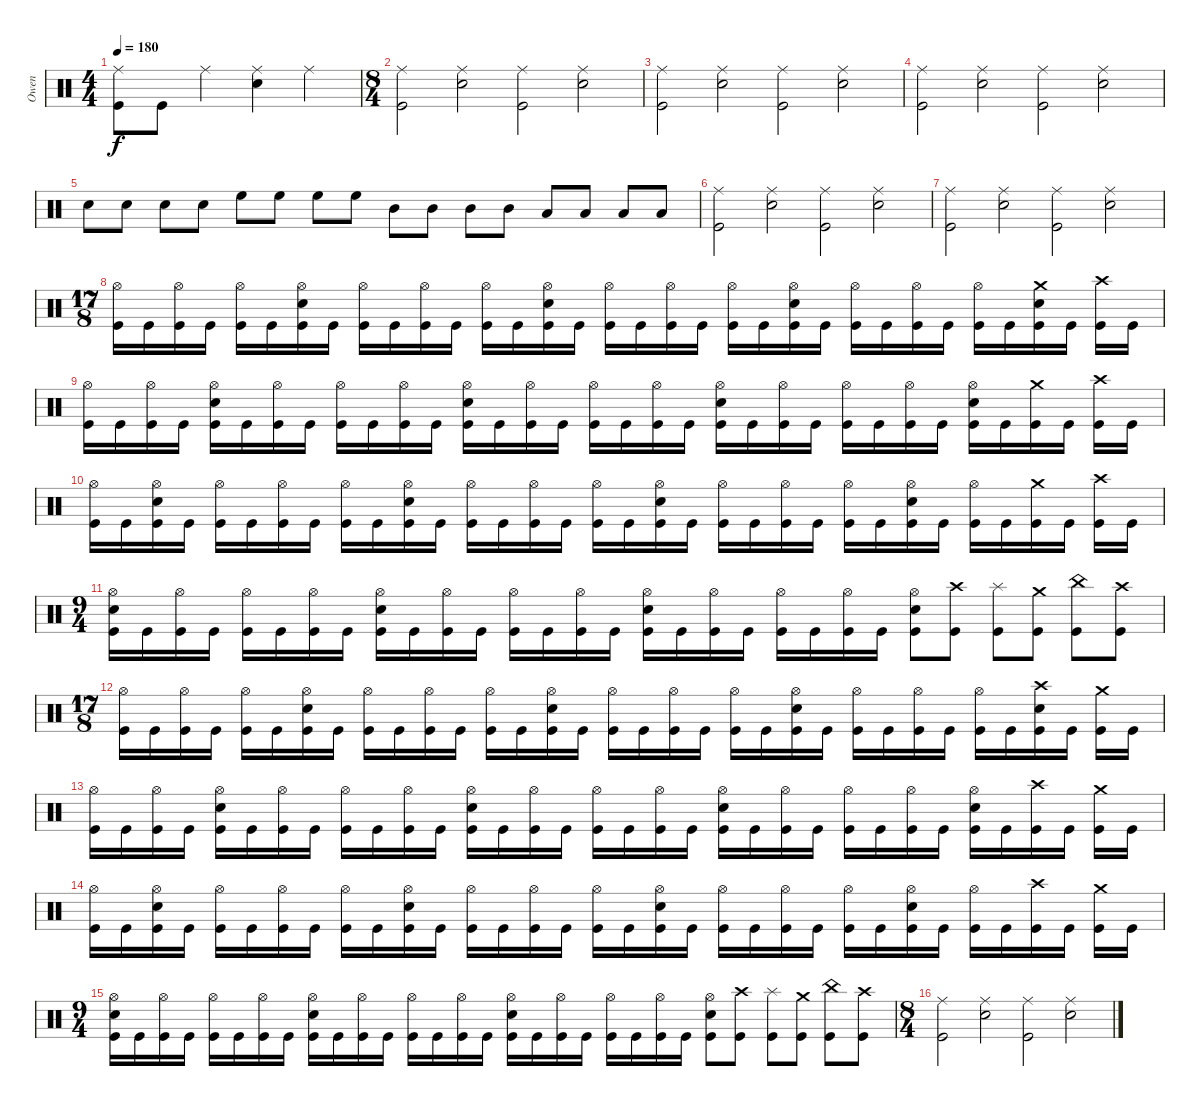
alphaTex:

\track ("Owen" "Owen") {instrument percussion}
\staff {score}
\articulation defaults
\ts (4 4)
\tempo 180
\clef neutral
\ks c
("Ride (middle)" "Kick (hit)").8{dy f} "Kick (hit)".8 "Ride (middle)".4 ("Ride (middle)" "Snare (hit) 2").4 "Ride (middle)".4 |
\ts (8 4)
("Ride (middle)" "Kick (hit)").2 ("Ride (middle)" "Snare (hit) 2").2 ("Ride (middle)" "Kick (hit)").2 ("Ride (middle)" "Snare (hit) 2").2 |
("Ride (middle)" "Kick (hit)").2 ("Ride (middle)" "Snare (hit) 2").2 ("Ride (middle)" "Kick (hit)").2 ("Ride (middle)" "Snare (hit) 2").2 |
("Ride (middle)" "Kick (hit)").2 ("Ride (middle)" "Snare (hit) 2").2 ("Ride (middle)" "Kick (hit)").2 ("Ride (middle)" "Snare (hit) 2").2 |
"Snare (hit) 2".8 "Snare (hit) 2".8 "Snare (hit) 2".8 "Snare (hit) 2".8 "High Floor Tom (hit)".8 "High Floor Tom (hit)".8 "High Floor Tom (hit)".8 "High Floor Tom (hit)".8 "Mid Tom (hit)".8 "Mid Tom (hit)".8 "Mid Tom (hit)".8 "Mid Tom (hit)".8 "Low Tom (hit)".8 "Low Tom (hit)".8 "Low Floor Tom (hit)".8 "Low Floor Tom (hit)".8 |
("Ride (middle)" "Kick (hit)").2 ("Ride (middle)" "Snare (hit) 2").2 ("Ride (middle)" "Kick (hit)").2 ("Ride (middle)" "Snare (hit) 2").2 |
("Ride (middle)" "Kick (hit)").2 ("Ride (middle)" "Snare (hit) 2").2 ("Ride (middle)" "Kick (hit)").2 ("Ride (middle)" "Snare (hit) 2").2 |
\ts (17 8)
("Hi-Hat (open)" "Kick (hit)").16 "Kick (hit)".16 ("Hi-Hat (open)" "Kick (hit)").16 "Kick (hit)".16 ("Hi-Hat (open)" "Kick (hit)").16 "Kick (hit)".16 ("Hi-Hat (open)" "Snare (hit) 2" "Kick (hit)").16 "Kick (hit)".16 ("Hi-Hat (open)" "Kick (hit)").16 "Kick (hit)".16 ("Hi-Hat (open)" "Kick (hit)").16 "Kick (hit)".16 ("Hi-Hat (open)" "Kick (hit)").16 "Kick (hit)".16 ("Hi-Hat (open)" "Snare (hit) 2" "Kick (hit)").16 "Kick (hit)".16 ("Hi-Hat (open)" "Kick (hit)").16 "Kick (hit)".16 ("Hi-Hat (open)" "Kick (hit)").16 "Kick (hit)".16 ("Hi-Hat (open)" "Kick (hit)").16 "Kick (hit)".16 ("Hi-Hat (open)" "Snare (hit) 2" "Kick (hit)").16 "Kick (hit)".16 ("Hi-Hat (open)" "Kick (hit)").16 "Kick (hit)".16 ("Hi-Hat (open)" "Kick (hit)").16 "Kick (hit)".16 ("Hi-Hat (open)" "Kick (hit)").16 "Kick (hit)".16 ("Crash medium (hit)" "Snare (hit) 2" "Kick (hit)").16 "Kick (hit)".16 ("Crash high (hit)" "Kick (hit)").16 "Kick (hit)".16 |
("Hi-Hat (open)" "Kick (hit)").16 "Kick (hit)".16 ("Hi-Hat (open)" "Kick (hit)").16 "Kick (hit)".16 ("Hi-Hat (open)" "Snare (hit) 2" "Kick (hit)").16 "Kick (hit)".16 ("Hi-Hat (open)" "Kick (hit)").16 "Kick (hit)".16 ("Hi-Hat (open)" "Kick (hit)").16 "Kick (hit)".16 ("Hi-Hat (open)" "Kick (hit)").16 "Kick (hit)".16 ("Hi-Hat (open)" "Snare (hit) 2" "Kick (hit)").16 "Kick (hit)".16 ("Hi-Hat (open)" "Kick (hit)").16 "Kick (hit)".16 ("Hi-Hat (open)" "Kick (hit)").16 "Kick (hit)".16 ("Hi-Hat (open)" "Kick (hit)").16 "Kick (hit)".16 ("Hi-Hat (open)" "Snare (hit) 2" "Kick (hit)").16 "Kick (hit)".16 ("Hi-Hat (open)" "Kick (hit)").16 "Kick (hit)".16 ("Hi-Hat (open)" "Kick (hit)").16 "Kick (hit)".16 ("Hi-Hat (open)" "Kick (hit)").16 "Kick (hit)".16 ("Hi-Hat (open)" "Snare (hit) 2" "Kick (hit)").16 "Kick (hit)".16 ("Crash medium (hit)" "Kick (hit)").16 "Kick (hit)".16 ("Crash high (hit)" "Kick (hit)").16 "Kick (hit)".16 |
("Hi-Hat (open)" "Kick (hit)").16 "Kick (hit)".16 ("Hi-Hat (open)" "Snare (hit) 2" "Kick (hit)").16 "Kick (hit)".16 ("Hi-Hat (open)" "Kick (hit)").16 "Kick (hit)".16 ("Hi-Hat (open)" "Kick (hit)").16 "Kick (hit)".16 ("Hi-Hat (open)" "Kick (hit)").16 "Kick (hit)".16 ("Hi-Hat (open)" "Snare (hit) 2" "Kick (hit)").16 "Kick (hit)".16 ("Hi-Hat (open)" "Kick (hit)").16 "Kick (hit)".16 ("Hi-Hat (open)" "Kick (hit)").16 "Kick (hit)".16 ("Hi-Hat (open)" "Kick (hit)").16 "Kick (hit)".16 ("Hi-Hat (open)" "Snare (hit) 2" "Kick (hit)").16 "Kick (hit)".16 ("Hi-Hat (open)" "Kick (hit)").16 "Kick (hit)".16 ("Hi-Hat (open)" "Kick (hit)").16 "Kick (hit)".16 ("Hi-Hat (open)" "Kick (hit)").16 "Kick (hit)".16 ("Hi-Hat (open)" "Snare (hit) 2" "Kick (hit)").16 "Kick (hit)".16 ("Hi-Hat (open)" "Kick (hit)").16 "Kick (hit)".16 ("Crash medium (hit)" "Kick (hit)").16 "Kick (hit)".16 ("Crash high (hit)" "Kick (hit)").16 "Kick (hit)".16 |
\ts (9 4)
("Hi-Hat (open)" "Snare (hit) 2" "Kick (hit)").16 "Kick (hit)".16 ("Hi-Hat (open)" "Kick (hit)").16 "Kick (hit)".16 ("Hi-Hat (open)" "Kick (hit)").16 "Kick (hit)".16 ("Hi-Hat (open)" "Kick (hit)").16 "Kick (hit)".16 ("Hi-Hat (open)" "Snare (hit) 2" "Kick (hit)").16 "Kick (hit)".16 ("Hi-Hat (open)" "Kick (hit)").16 "Kick (hit)".16 ("Hi-Hat (open)" "Kick (hit)").16 "Kick (hit)".16 ("Hi-Hat (open)" "Kick (hit)").16 "Kick (hit)".16 ("Hi-Hat (open)" "Snare (hit) 2" "Kick (hit)").16 "Kick (hit)".16 ("Hi-Hat (open)" "Kick (hit)").16 "Kick (hit)".16 ("Hi-Hat (open)" "Kick (hit)").16 "Kick (hit)".16 ("Hi-Hat (open)" "Kick (hit)").16 "Kick (hit)".16 ("Hi-Hat (open)" "Snare (hit) 2" "Kick (hit)").8 ("Crash high (hit)" "Kick (hit)").8 ("Splash (hit)" "Kick (hit)").8 ("Crash medium (hit)" "Kick (hit)").8 ("China (hit)" "Kick (hit)").8 ("Crash high (hit)" "Kick (hit)").8 |
\ts (17 8)
("Hi-Hat (open)" "Kick (hit)").16 "Kick (hit)".16 ("Hi-Hat (open)" "Kick (hit)").16 "Kick (hit)".16 ("Hi-Hat (open)" "Kick (hit)").16 "Kick (hit)".16 ("Hi-Hat (open)" "Snare (hit) 2" "Kick (hit)").16 "Kick (hit)".16 ("Hi-Hat (open)" "Kick (hit)").16 "Kick (hit)".16 ("Hi-Hat (open)" "Kick (hit)").16 "Kick (hit)".16 ("Hi-Hat (open)" "Kick (hit)").16 "Kick (hit)".16 ("Hi-Hat (open)" "Snare (hit) 2" "Kick (hit)").16 "Kick (hit)".16 ("Hi-Hat (open)" "Kick (hit)").16 "Kick (hit)".16 ("Hi-Hat (open)" "Kick (hit)").16 "Kick (hit)".16 ("Hi-Hat (open)" "Kick (hit)").16 "Kick (hit)".16 ("Hi-Hat (open)" "Snare (hit) 2" "Kick (hit)").16 "Kick (hit)".16 ("Hi-Hat (open)" "Kick (hit)").16 "Kick (hit)".16 ("Hi-Hat (open)" "Kick (hit)").16 "Kick (hit)".16 ("Hi-Hat (open)" "Kick (hit)").16 "Kick (hit)".16 ("Crash high (hit)" "Snare (hit) 2" "Kick (hit)").16 "Kick (hit)".16 ("Crash medium (hit)" "Kick (hit)").16 "Kick (hit)".16 |
("Hi-Hat (open)" "Kick (hit)").16 "Kick (hit)".16 ("Hi-Hat (open)" "Kick (hit)").16 "Kick (hit)".16 ("Hi-Hat (open)" "Snare (hit) 2" "Kick (hit)").16 "Kick (hit)".16 ("Hi-Hat (open)" "Kick (hit)").16 "Kick (hit)".16 ("Hi-Hat (open)" "Kick (hit)").16 "Kick (hit)".16 ("Hi-Hat (open)" "Kick (hit)").16 "Kick (hit)".16 ("Hi-Hat (open)" "Snare (hit) 2" "Kick (hit)").16 "Kick (hit)".16 ("Hi-Hat (open)" "Kick (hit)").16 "Kick (hit)".16 ("Hi-Hat (open)" "Kick (hit)").16 "Kick (hit)".16 ("Hi-Hat (open)" "Kick (hit)").16 "Kick (hit)".16 ("Hi-Hat (open)" "Snare (hit) 2" "Kick (hit)").16 "Kick (hit)".16 ("Hi-Hat (open)" "Kick (hit)").16 "Kick (hit)".16 ("Hi-Hat (open)" "Kick (hit)").16 "Kick (hit)".16 ("Hi-Hat (open)" "Kick (hit)").16 "Kick (hit)".16 ("Hi-Hat (open)" "Snare (hit) 2" "Kick (hit)").16 "Kick (hit)".16 ("Crash high (hit)" "Kick (hit)").16 "Kick (hit)".16 ("Crash medium (hit)" "Kick (hit)").16 "Kick (hit)".16 |
("Hi-Hat (open)" "Kick (hit)").16 "Kick (hit)".16 ("Hi-Hat (open)" "Snare (hit) 2" "Kick (hit)").16 "Kick (hit)".16 ("Hi-Hat (open)" "Kick (hit)").16 "Kick (hit)".16 ("Hi-Hat (open)" "Kick (hit)").16 "Kick (hit)".16 ("Hi-Hat (open)" "Kick (hit)").16 "Kick (hit)".16 ("Hi-Hat (open)" "Snare (hit) 2" "Kick (hit)").16 "Kick (hit)".16 ("Hi-Hat (open)" "Kick (hit)").16 "Kick (hit)".16 ("Hi-Hat (open)" "Kick (hit)").16 "Kick (hit)".16 ("Hi-Hat (open)" "Kick (hit)").16 "Kick (hit)".16 ("Hi-Hat (open)" "Snare (hit) 2" "Kick (hit)").16 "Kick (hit)".16 ("Hi-Hat (open)" "Kick (hit)").16 "Kick (hit)".16 ("Hi-Hat (open)" "Kick (hit)").16 "Kick (hit)".16 ("Hi-Hat (open)" "Kick (hit)").16 "Kick (hit)".16 ("Hi-Hat (open)" "Snare (hit) 2" "Kick (hit)").16 "Kick (hit)".16 ("Hi-Hat (open)" "Kick (hit)").16 "Kick (hit)".16 ("Crash high (hit)" "Kick (hit)").16 "Kick (hit)".16 ("Crash medium (hit)" "Kick (hit)").16 "Kick (hit)".16 |
\ts (9 4)
("Hi-Hat (open)" "Snare (hit) 2" "Kick (hit)").16 "Kick (hit)".16 ("Hi-Hat (open)" "Kick (hit)").16 "Kick (hit)".16 ("Hi-Hat (open)" "Kick (hit)").16 "Kick (hit)".16 ("Hi-Hat (open)" "Kick (hit)").16 "Kick (hit)".16 ("Hi-Hat (open)" "Snare (hit) 2" "Kick (hit)").16 "Kick (hit)".16 ("Hi-Hat (open)" "Kick (hit)").16 "Kick (hit)".16 ("Hi-Hat (open)" "Kick (hit)").16 "Kick (hit)".16 ("Hi-Hat (open)" "Kick (hit)").16 "Kick (hit)".16 ("Hi-Hat (open)" "Snare (hit) 2" "Kick (hit)").16 "Kick (hit)".16 ("Hi-Hat (open)" "Kick (hit)").16 "Kick (hit)".16 ("Hi-Hat (open)" "Kick (hit)").16 "Kick (hit)".16 ("Hi-Hat (open)" "Kick (hit)").16 "Kick (hit)".16 ("Hi-Hat (open)" "Snare (hit) 2" "Kick (hit)").8 ("Crash high (hit)" "Kick (hit)").8 ("Splash (hit)" "Kick (hit)").8 ("Crash medium (hit)" "Kick (hit)").8 ("China (hit)" "Kick (hit)").8 ("Crash high (hit)" "Kick (hit)").8 |
\ts (8 4)
("Ride (middle)" "Kick (hit)").2 ("Ride (middle)" "Snare (hit) 2").2 ("Ride (middle)" "Kick (hit)").2 ("Ride (middle)" "Snare (hit) 2").2
